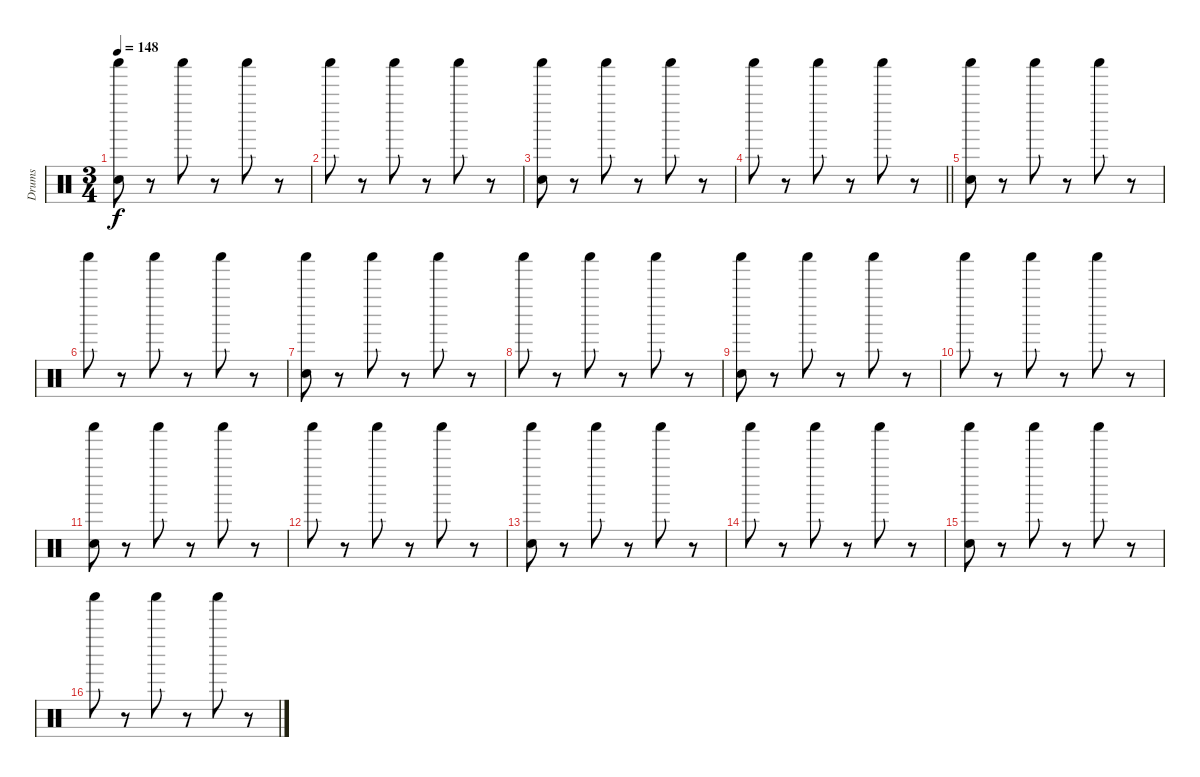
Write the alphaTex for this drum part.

\track ("Drums" "Drums") {instrument percussion bank 1}
\staff {score}
\articulation defaults
\ts (3 4)
\tempo 148
\clef neutral
\ks c
("Shaker (hit)" "Hand Clap (hit)").8{dy f} r.8 "Shaker (hit)".8 r.8 "Shaker (hit)".8 r.8 |
"Shaker (hit)".8 r.8 "Shaker (hit)".8 r.8 "Shaker (hit)".8 r.8 |
("Shaker (hit)" "Hand Clap (hit)").8 r.8 "Shaker (hit)".8 r.8 "Shaker (hit)".8 r.8 |
\barLineRight lightlight "Shaker (hit)".8
r.8 "Shaker (hit)".8 r.8 "Shaker (hit)".8 r.8 |
("Shaker (hit)" "Hand Clap (hit)").8 r.8 "Shaker (hit)".8 r.8 "Shaker (hit)".8 r.8 |
"Shaker (hit)".8 r.8 "Shaker (hit)".8 r.8 "Shaker (hit)".8 r.8 |
("Shaker (hit)" "Hand Clap (hit)").8 r.8 "Shaker (hit)".8 r.8 "Shaker (hit)".8 r.8 |
"Shaker (hit)".8 r.8 "Shaker (hit)".8 r.8 "Shaker (hit)".8 r.8 |
("Shaker (hit)" "Hand Clap (hit)").8 r.8 "Shaker (hit)".8 r.8 "Shaker (hit)".8 r.8 |
"Shaker (hit)".8 r.8 "Shaker (hit)".8 r.8 "Shaker (hit)".8 r.8 |
("Shaker (hit)" "Hand Clap (hit)").8 r.8 "Shaker (hit)".8 r.8 "Shaker (hit)".8 r.8 |
"Shaker (hit)".8 r.8 "Shaker (hit)".8 r.8 "Shaker (hit)".8 r.8 |
("Shaker (hit)" "Hand Clap (hit)").8 r.8 "Shaker (hit)".8 r.8 "Shaker (hit)".8 r.8 |
"Shaker (hit)".8 r.8 "Shaker (hit)".8 r.8 "Shaker (hit)".8 r.8 |
("Shaker (hit)" "Hand Clap (hit)").8 r.8 "Shaker (hit)".8 r.8 "Shaker (hit)".8 r.8 |
"Shaker (hit)".8 r.8 "Shaker (hit)".8 r.8 "Shaker (hit)".8 r.8
